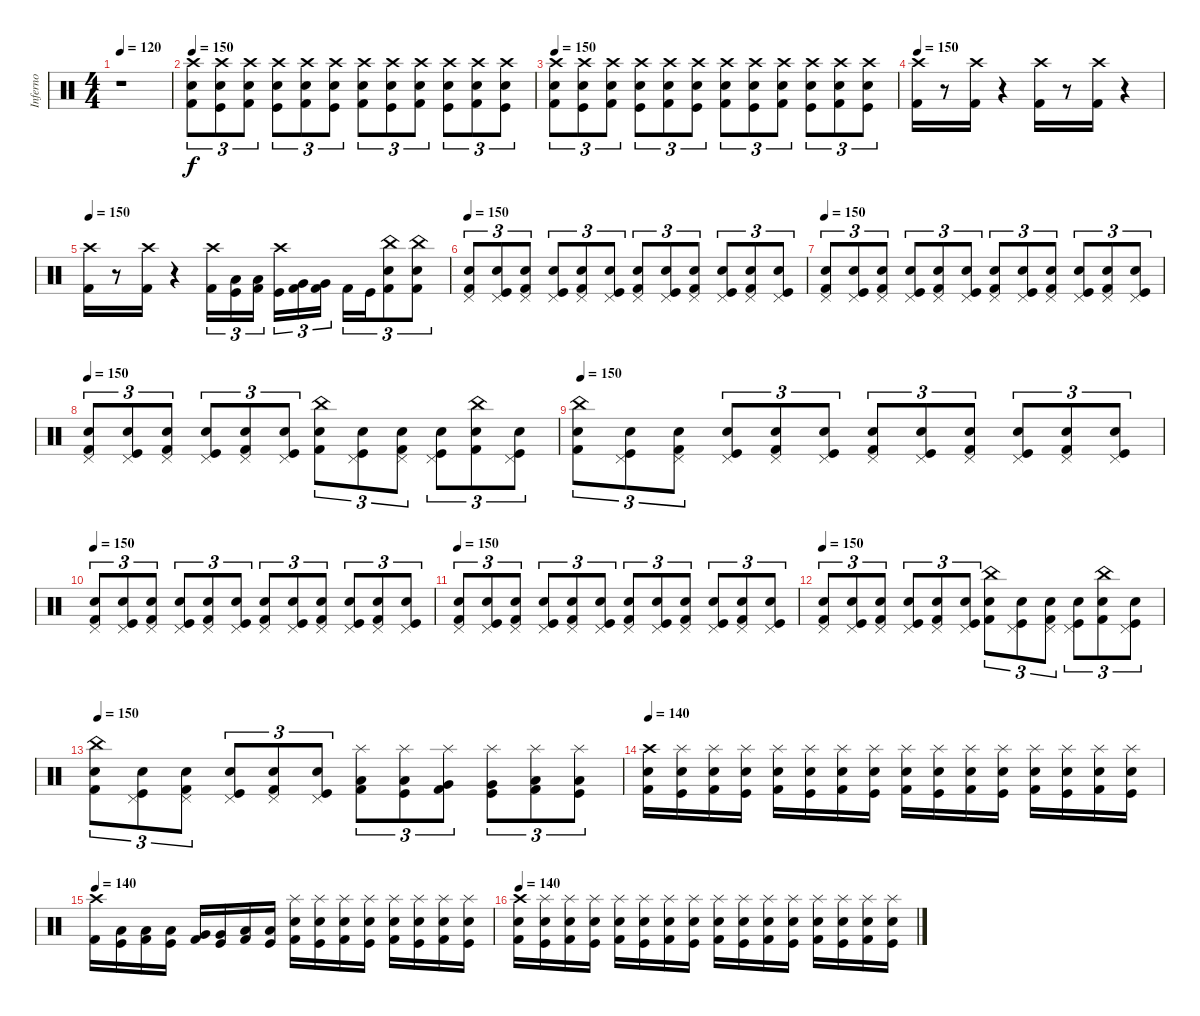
\track ("Inferno" "Inferno") {instrument percussion}
\staff {score}
\articulation defaults
\ts (4 4)
\tempo 120
\clef neutral
\ks c
r.1{dy f} |
\tempo 150
("Crash high (hit)" "Electric Snare (hit)" "Kick (hit) 2").8{tu (3 2)} ("Crash high (hit)" "Electric Snare (hit)" "Kick (hit)").8{tu (3 2)} ("Crash high (hit)" "Electric Snare (hit)" "Kick (hit) 2").8{tu (3 2)} ("Crash high (hit)" "Electric Snare (hit)" "Kick (hit)").8{tu (3 2)} ("Crash high (hit)" "Electric Snare (hit)" "Kick (hit) 2").8{tu (3 2)} ("Crash high (hit)" "Electric Snare (hit)" "Kick (hit)").8{tu (3 2)} ("Crash high (hit)" "Electric Snare (hit)" "Kick (hit) 2").8{tu (3 2)} ("Crash high (hit)" "Electric Snare (hit)" "Kick (hit)").8{tu (3 2)} ("Crash high (hit)" "Electric Snare (hit)" "Kick (hit) 2").8{tu (3 2)} ("Crash high (hit)" "Electric Snare (hit)" "Kick (hit)").8{tu (3 2)} ("Crash high (hit)" "Electric Snare (hit)" "Kick (hit) 2").8{tu (3 2)} ("Crash high (hit)" "Electric Snare (hit)" "Kick (hit)").8{tu (3 2)} |
\tempo 150
("Crash high (hit)" "Electric Snare (hit)" "Kick (hit) 2").8{tu (3 2)} ("Crash high (hit)" "Electric Snare (hit)" "Kick (hit)").8{tu (3 2)} ("Crash high (hit)" "Electric Snare (hit)" "Kick (hit) 2").8{tu (3 2)} ("Crash high (hit)" "Electric Snare (hit)" "Kick (hit)").8{tu (3 2)} ("Crash high (hit)" "Electric Snare (hit)" "Kick (hit) 2").8{tu (3 2)} ("Crash high (hit)" "Electric Snare (hit)" "Kick (hit)").8{tu (3 2)} ("Crash high (hit)" "Electric Snare (hit)" "Kick (hit) 2").8{tu (3 2)} ("Crash high (hit)" "Electric Snare (hit)" "Kick (hit)").8{tu (3 2)} ("Crash high (hit)" "Electric Snare (hit)" "Kick (hit) 2").8{tu (3 2)} ("Crash high (hit)" "Electric Snare (hit)" "Kick (hit)").8{tu (3 2)} ("Crash high (hit)" "Electric Snare (hit)" "Kick (hit) 2").8{tu (3 2)} ("Crash high (hit)" "Electric Snare (hit)" "Kick (hit)").8{tu (3 2)} |
\tempo 150
("Crash high (hit)" "Kick (hit) 2").16 r.8 ("Crash high (hit)" "Kick (hit) 2").16 r.4 ("Crash high (hit)" "Kick (hit) 2").16 r.8 ("Crash high (hit)" "Kick (hit) 2").16 r.4 |
\tempo 150
("Crash high (hit)" "Kick (hit) 2").16 r.8 ("Crash high (hit)" "Kick (hit) 2").16 r.4 ("Crash high (hit)" "Kick (hit) 2").16{tu (3 2)} ("Low Tom (hit)" "Kick (hit)").16{tu (3 2)} ("Low Tom (hit)" "Kick (hit) 2").16{tu (3 2)} ("Crash high (hit)" "Kick (hit)").16{tu (3 2)} ("Very Low Tom (hit)" "Kick (hit) 2").16{tu (3 2)} ("Very Low Tom (hit)" "Kick (hit) 2").16{tu (3 2)} "Kick (hit) 2".16{tu (3 2)} "Kick (hit)".16{tu (3 2)} ("China (hit)" "Electric Snare (hit)" "Kick (hit) 2").8{tu (3 2)} ("China (hit)" "Electric Snare (hit)" "Kick (hit) 2").8{tu (3 2)} |
\tempo 150
("Pedal Hi-Hat (hit)" "Electric Snare (hit)" "Kick (hit) 2").8{tu (3 2)} ("Pedal Hi-Hat (hit)" "Electric Snare (hit)" "Kick (hit)").8{tu (3 2)} ("Pedal Hi-Hat (hit)" "Electric Snare (hit)" "Kick (hit) 2").8{tu (3 2)} ("Pedal Hi-Hat (hit)" "Electric Snare (hit)" "Kick (hit)").8{tu (3 2)} ("Pedal Hi-Hat (hit)" "Electric Snare (hit)" "Kick (hit) 2").8{tu (3 2)} ("Pedal Hi-Hat (hit)" "Electric Snare (hit)" "Kick (hit)").8{tu (3 2)} ("Pedal Hi-Hat (hit)" "Electric Snare (hit)" "Kick (hit) 2").8{tu (3 2)} ("Pedal Hi-Hat (hit)" "Electric Snare (hit)" "Kick (hit)").8{tu (3 2)} ("Pedal Hi-Hat (hit)" "Electric Snare (hit)" "Kick (hit) 2").8{tu (3 2)} ("Pedal Hi-Hat (hit)" "Electric Snare (hit)" "Kick (hit)").8{tu (3 2)} ("Pedal Hi-Hat (hit)" "Electric Snare (hit)" "Kick (hit) 2").8{tu (3 2)} ("Pedal Hi-Hat (hit)" "Electric Snare (hit)" "Kick (hit)").8{tu (3 2)} |
\tempo 150
("Pedal Hi-Hat (hit)" "Electric Snare (hit)" "Kick (hit) 2").8{tu (3 2)} ("Pedal Hi-Hat (hit)" "Electric Snare (hit)" "Kick (hit)").8{tu (3 2)} ("Pedal Hi-Hat (hit)" "Electric Snare (hit)" "Kick (hit) 2").8{tu (3 2)} ("Pedal Hi-Hat (hit)" "Electric Snare (hit)" "Kick (hit)").8{tu (3 2)} ("Pedal Hi-Hat (hit)" "Electric Snare (hit)" "Kick (hit) 2").8{tu (3 2)} ("Pedal Hi-Hat (hit)" "Electric Snare (hit)" "Kick (hit)").8{tu (3 2)} ("Pedal Hi-Hat (hit)" "Electric Snare (hit)" "Kick (hit) 2").8{tu (3 2)} ("Pedal Hi-Hat (hit)" "Electric Snare (hit)" "Kick (hit)").8{tu (3 2)} ("Pedal Hi-Hat (hit)" "Electric Snare (hit)" "Kick (hit) 2").8{tu (3 2)} ("Pedal Hi-Hat (hit)" "Electric Snare (hit)" "Kick (hit)").8{tu (3 2)} ("Pedal Hi-Hat (hit)" "Electric Snare (hit)" "Kick (hit) 2").8{tu (3 2)} ("Pedal Hi-Hat (hit)" "Electric Snare (hit)" "Kick (hit)").8{tu (3 2)} |
\tempo 150
("Pedal Hi-Hat (hit)" "Electric Snare (hit)" "Kick (hit) 2").8{tu (3 2)} ("Pedal Hi-Hat (hit)" "Electric Snare (hit)" "Kick (hit)").8{tu (3 2)} ("Pedal Hi-Hat (hit)" "Electric Snare (hit)" "Kick (hit) 2").8{tu (3 2)} ("Pedal Hi-Hat (hit)" "Electric Snare (hit)" "Kick (hit)").8{tu (3 2)} ("Pedal Hi-Hat (hit)" "Electric Snare (hit)" "Kick (hit) 2").8{tu (3 2)} ("Pedal Hi-Hat (hit)" "Electric Snare (hit)" "Kick (hit)").8{tu (3 2)} ("China (hit)" "Electric Snare (hit)" "Kick (hit) 2").8{tu (3 2)} ("Pedal Hi-Hat (hit)" "Electric Snare (hit)" "Kick (hit)").8{tu (3 2)} ("Pedal Hi-Hat (hit)" "Electric Snare (hit)" "Kick (hit) 2").8{tu (3 2)} ("Pedal Hi-Hat (hit)" "Electric Snare (hit)" "Kick (hit)").8{tu (3 2)} ("China (hit)" "Electric Snare (hit)" "Kick (hit) 2").8{tu (3 2)} ("Pedal Hi-Hat (hit)" "Electric Snare (hit)" "Kick (hit)").8{tu (3 2)} |
\tempo 150
("China (hit)" "Electric Snare (hit)" "Kick (hit) 2").8{tu (3 2)} ("Pedal Hi-Hat (hit)" "Electric Snare (hit)" "Kick (hit)").8{tu (3 2)} ("Pedal Hi-Hat (hit)" "Electric Snare (hit)" "Kick (hit) 2").8{tu (3 2)} ("Pedal Hi-Hat (hit)" "Electric Snare (hit)" "Kick (hit)").8{tu (3 2)} ("Pedal Hi-Hat (hit)" "Electric Snare (hit)" "Kick (hit) 2").8{tu (3 2)} ("Pedal Hi-Hat (hit)" "Electric Snare (hit)" "Kick (hit)").8{tu (3 2)} ("Pedal Hi-Hat (hit)" "Electric Snare (hit)" "Kick (hit) 2").8{tu (3 2)} ("Pedal Hi-Hat (hit)" "Electric Snare (hit)" "Kick (hit)").8{tu (3 2)} ("Pedal Hi-Hat (hit)" "Electric Snare (hit)" "Kick (hit) 2").8{tu (3 2)} ("Pedal Hi-Hat (hit)" "Electric Snare (hit)" "Kick (hit)").8{tu (3 2)} ("Pedal Hi-Hat (hit)" "Electric Snare (hit)" "Kick (hit) 2").8{tu (3 2)} ("Pedal Hi-Hat (hit)" "Electric Snare (hit)" "Kick (hit)").8{tu (3 2)} |
\tempo 150
("Pedal Hi-Hat (hit)" "Electric Snare (hit)" "Kick (hit) 2").8{tu (3 2)} ("Pedal Hi-Hat (hit)" "Electric Snare (hit)" "Kick (hit)").8{tu (3 2)} ("Pedal Hi-Hat (hit)" "Electric Snare (hit)" "Kick (hit) 2").8{tu (3 2)} ("Pedal Hi-Hat (hit)" "Electric Snare (hit)" "Kick (hit)").8{tu (3 2)} ("Pedal Hi-Hat (hit)" "Electric Snare (hit)" "Kick (hit) 2").8{tu (3 2)} ("Pedal Hi-Hat (hit)" "Electric Snare (hit)" "Kick (hit)").8{tu (3 2)} ("Pedal Hi-Hat (hit)" "Electric Snare (hit)" "Kick (hit) 2").8{tu (3 2)} ("Pedal Hi-Hat (hit)" "Electric Snare (hit)" "Kick (hit)").8{tu (3 2)} ("Pedal Hi-Hat (hit)" "Electric Snare (hit)" "Kick (hit) 2").8{tu (3 2)} ("Pedal Hi-Hat (hit)" "Electric Snare (hit)" "Kick (hit)").8{tu (3 2)} ("Pedal Hi-Hat (hit)" "Electric Snare (hit)" "Kick (hit) 2").8{tu (3 2)} ("Pedal Hi-Hat (hit)" "Electric Snare (hit)" "Kick (hit)").8{tu (3 2)} |
\tempo 150
("Pedal Hi-Hat (hit)" "Electric Snare (hit)" "Kick (hit) 2").8{tu (3 2)} ("Pedal Hi-Hat (hit)" "Electric Snare (hit)" "Kick (hit)").8{tu (3 2)} ("Pedal Hi-Hat (hit)" "Electric Snare (hit)" "Kick (hit) 2").8{tu (3 2)} ("Pedal Hi-Hat (hit)" "Electric Snare (hit)" "Kick (hit)").8{tu (3 2)} ("Pedal Hi-Hat (hit)" "Electric Snare (hit)" "Kick (hit) 2").8{tu (3 2)} ("Pedal Hi-Hat (hit)" "Electric Snare (hit)" "Kick (hit)").8{tu (3 2)} ("Pedal Hi-Hat (hit)" "Electric Snare (hit)" "Kick (hit) 2").8{tu (3 2)} ("Pedal Hi-Hat (hit)" "Electric Snare (hit)" "Kick (hit)").8{tu (3 2)} ("Pedal Hi-Hat (hit)" "Electric Snare (hit)" "Kick (hit) 2").8{tu (3 2)} ("Pedal Hi-Hat (hit)" "Electric Snare (hit)" "Kick (hit)").8{tu (3 2)} ("Pedal Hi-Hat (hit)" "Electric Snare (hit)" "Kick (hit) 2").8{tu (3 2)} ("Pedal Hi-Hat (hit)" "Electric Snare (hit)" "Kick (hit)").8{tu (3 2)} |
\tempo 150
("Pedal Hi-Hat (hit)" "Electric Snare (hit)" "Kick (hit) 2").8{tu (3 2)} ("Pedal Hi-Hat (hit)" "Electric Snare (hit)" "Kick (hit)").8{tu (3 2)} ("Pedal Hi-Hat (hit)" "Electric Snare (hit)" "Kick (hit) 2").8{tu (3 2)} ("Pedal Hi-Hat (hit)" "Electric Snare (hit)" "Kick (hit)").8{tu (3 2)} ("Pedal Hi-Hat (hit)" "Electric Snare (hit)" "Kick (hit) 2").8{tu (3 2)} ("Pedal Hi-Hat (hit)" "Electric Snare (hit)" "Kick (hit)").8{tu (3 2)} ("China (hit)" "Electric Snare (hit)" "Kick (hit) 2").8{tu (3 2)} ("Pedal Hi-Hat (hit)" "Electric Snare (hit)" "Kick (hit)").8{tu (3 2)} ("Pedal Hi-Hat (hit)" "Electric Snare (hit)" "Kick (hit) 2").8{tu (3 2)} ("Pedal Hi-Hat (hit)" "Electric Snare (hit)" "Kick (hit)").8{tu (3 2)} ("China (hit)" "Electric Snare (hit)" "Kick (hit) 2").8{tu (3 2)} ("Pedal Hi-Hat (hit)" "Electric Snare (hit)" "Kick (hit)").8{tu (3 2)} |
\tempo 150
("China (hit)" "Electric Snare (hit)" "Kick (hit) 2").8{tu (3 2)} ("Pedal Hi-Hat (hit)" "Electric Snare (hit)" "Kick (hit)").8{tu (3 2)} ("Pedal Hi-Hat (hit)" "Electric Snare (hit)" "Kick (hit) 2").8{tu (3 2)} ("Pedal Hi-Hat (hit)" "Electric Snare (hit)" "Kick (hit)").8{tu (3 2)} ("Pedal Hi-Hat (hit)" "Electric Snare (hit)" "Kick (hit) 2").8{tu (3 2)} ("Pedal Hi-Hat (hit)" "Electric Snare (hit)" "Kick (hit)").8{tu (3 2)} ("Splash (hit)" "Low Tom (hit)" "Kick (hit) 2").8{tu (3 2)} ("Splash (hit)" "Low Tom (hit)" "Kick (hit)").8{tu (3 2)} ("Splash (hit)" "Very Low Tom (hit)" "Kick (hit) 2").8{tu (3 2)} ("Splash (hit)" "Very Low Tom (hit)" "Kick (hit)").8{tu (3 2)} ("Splash (hit)" "Low Floor Tom (hit)" "Kick (hit) 2").8{tu (3 2)} ("Splash (hit)" "Low Floor Tom (hit)" "Kick (hit)").8{tu (3 2)} |
\tempo 140
("Crash high (hit)" "Electric Snare (hit)" "Kick (hit) 2").16 ("Splash (hit)" "Electric Snare (hit)" "Kick (hit)").16 ("Splash (hit)" "Electric Snare (hit)" "Kick (hit) 2").16 ("Splash (hit)" "Electric Snare (hit)" "Kick (hit)").16 ("Splash (hit)" "Electric Snare (hit)" "Kick (hit) 2").16 ("Splash (hit)" "Electric Snare (hit)" "Kick (hit)").16 ("Splash (hit)" "Electric Snare (hit)" "Kick (hit) 2").16 ("Splash (hit)" "Electric Snare (hit)" "Kick (hit)").16 ("Splash (hit)" "Electric Snare (hit)" "Kick (hit) 2").16 ("Splash (hit)" "Electric Snare (hit)" "Kick (hit)").16 ("Splash (hit)" "Electric Snare (hit)" "Kick (hit) 2").16 ("Splash (hit)" "Electric Snare (hit)" "Kick (hit)").16 ("Splash (hit)" "Electric Snare (hit)" "Kick (hit) 2").16 ("Splash (hit)" "Electric Snare (hit)" "Kick (hit)").16 ("Splash (hit)" "Electric Snare (hit)" "Kick (hit) 2").16 ("Splash (hit)" "Electric Snare (hit)" "Kick (hit)").16 |
\tempo 140
("Crash high (hit)" "Kick (hit) 2").16 ("Low Tom (hit)" "Kick (hit)").16 ("Low Tom (hit)" "Kick (hit) 2").16 ("Low Tom (hit)" "Kick (hit)").16 ("Very Low Tom (hit)" "Kick (hit) 2").16 ("Very Low Tom (hit)" "Kick (hit)").16 ("Low Floor Tom (hit)" "Kick (hit) 2").16 ("Low Floor Tom (hit)" "Kick (hit)").16 ("Splash (hit)" "Electric Snare (hit)" "Kick (hit) 2").16 ("Splash (hit)" "Electric Snare (hit)" "Kick (hit)").16 ("Splash (hit)" "Electric Snare (hit)" "Kick (hit) 2").16 ("Splash (hit)" "Electric Snare (hit)" "Kick (hit)").16 ("Splash (hit)" "Electric Snare (hit)" "Kick (hit) 2").16 ("Splash (hit)" "Electric Snare (hit)" "Kick (hit)").16 ("Splash (hit)" "Electric Snare (hit)" "Kick (hit) 2").16 ("Splash (hit)" "Electric Snare (hit)" "Kick (hit)").16 |
\tempo 140
("Crash high (hit)" "Electric Snare (hit)" "Kick (hit) 2").16 ("Splash (hit)" "Electric Snare (hit)" "Kick (hit)").16 ("Splash (hit)" "Electric Snare (hit)" "Kick (hit) 2").16 ("Splash (hit)" "Electric Snare (hit)" "Kick (hit)").16 ("Splash (hit)" "Electric Snare (hit)" "Kick (hit) 2").16 ("Splash (hit)" "Electric Snare (hit)" "Kick (hit)").16 ("Splash (hit)" "Electric Snare (hit)" "Kick (hit) 2").16 ("Splash (hit)" "Electric Snare (hit)" "Kick (hit)").16 ("Splash (hit)" "Electric Snare (hit)" "Kick (hit) 2").16 ("Splash (hit)" "Electric Snare (hit)" "Kick (hit)").16 ("Splash (hit)" "Electric Snare (hit)" "Kick (hit) 2").16 ("Splash (hit)" "Electric Snare (hit)" "Kick (hit)").16 ("Splash (hit)" "Electric Snare (hit)" "Kick (hit) 2").16 ("Splash (hit)" "Electric Snare (hit)" "Kick (hit)").16 ("Splash (hit)" "Electric Snare (hit)" "Kick (hit) 2").16 ("Splash (hit)" "Electric Snare (hit)" "Kick (hit)").16
